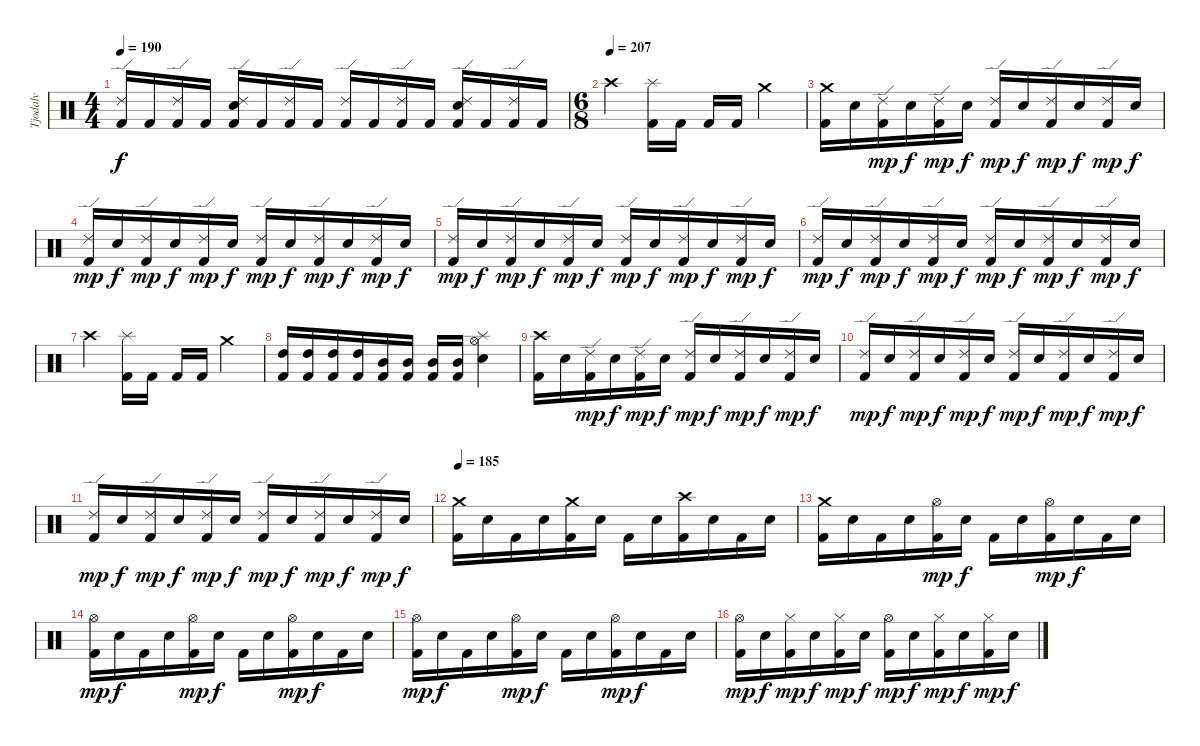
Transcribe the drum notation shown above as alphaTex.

\track ("Tjodalv" "Tjodalv") {instrument percussion}
\staff {score}
\articulation defaults
\ts (4 4)
\tempo 190
\clef neutral
\ks c
("Ride (edge) 2" "Kick (hit) 2").16{dy f} "Kick (hit) 2".16 ("Ride (edge) 2" "Kick (hit) 2").16 "Kick (hit) 2".16 ("Ride (edge) 2" "Electric Snare (hit)" "Kick (hit) 2").16 "Kick (hit) 2".16 ("Ride (edge) 2" "Kick (hit) 2").16 "Kick (hit) 2".16 ("Ride (edge) 2" "Kick (hit) 2").16 "Kick (hit) 2".16 ("Ride (edge) 2" "Kick (hit) 2").16 "Kick (hit) 2".16 ("Ride (edge) 2" "Electric Snare (hit)" "Kick (hit) 2").16 "Kick (hit) 2".16 ("Ride (edge) 2" "Kick (hit) 2").16 "Kick (hit) 2".16 |
\ts (6 8)
\tempo (207)
"Crash high (hit)".4 ("Splash (hit)" "Kick (hit) 2").16 "Kick (hit) 2".16 "Kick (hit) 2".16 "Kick (hit) 2".16 "Crash medium (hit)".4 |
("Crash medium (hit)" "Kick (hit) 2").16 "Electric Snare (hit)".16 ("Ride (edge) 2" "Kick (hit) 2").16{dy mp} "Electric Snare (hit)".16{dy f} ("Ride (edge) 2" "Kick (hit) 2").16{dy mp} "Electric Snare (hit)".16{dy f} ("Ride (edge) 2" "Kick (hit) 2").16{dy mp} "Electric Snare (hit)".16{dy f} ("Ride (edge) 2" "Kick (hit) 2").16{dy mp} "Electric Snare (hit)".16{dy f} ("Ride (edge) 2" "Kick (hit) 2").16{dy mp} "Electric Snare (hit)".16{dy f} |
("Ride (edge) 2" "Kick (hit) 2").16{dy mp} "Electric Snare (hit)".16{dy f} ("Ride (edge) 2" "Kick (hit) 2").16{dy mp} "Electric Snare (hit)".16{dy f} ("Ride (edge) 2" "Kick (hit) 2").16{dy mp} "Electric Snare (hit)".16{dy f} ("Ride (edge) 2" "Kick (hit) 2").16{dy mp} "Electric Snare (hit)".16{dy f} ("Ride (edge) 2" "Kick (hit) 2").16{dy mp} "Electric Snare (hit)".16{dy f} ("Ride (edge) 2" "Kick (hit) 2").16{dy mp} "Electric Snare (hit)".16{dy f} |
("Ride (edge) 2" "Kick (hit) 2").16{dy mp} "Electric Snare (hit)".16{dy f} ("Ride (edge) 2" "Kick (hit) 2").16{dy mp} "Electric Snare (hit)".16{dy f} ("Ride (edge) 2" "Kick (hit) 2").16{dy mp} "Electric Snare (hit)".16{dy f} ("Ride (edge) 2" "Kick (hit) 2").16{dy mp} "Electric Snare (hit)".16{dy f} ("Ride (edge) 2" "Kick (hit) 2").16{dy mp} "Electric Snare (hit)".16{dy f} ("Ride (edge) 2" "Kick (hit) 2").16{dy mp} "Electric Snare (hit)".16{dy f} |
("Ride (edge) 2" "Kick (hit) 2").16{dy mp} "Electric Snare (hit)".16{dy f} ("Ride (edge) 2" "Kick (hit) 2").16{dy mp} "Electric Snare (hit)".16{dy f} ("Ride (edge) 2" "Kick (hit) 2").16{dy mp} "Electric Snare (hit)".16{dy f} ("Ride (edge) 2" "Kick (hit) 2").16{dy mp} "Electric Snare (hit)".16{dy f} ("Ride (edge) 2" "Kick (hit) 2").16{dy mp} "Electric Snare (hit)".16{dy f} ("Ride (edge) 2" "Kick (hit) 2").16{dy mp} "Electric Snare (hit)".16{dy f} |
"Crash high (hit)".4 ("Splash (hit)" "Kick (hit) 2").16 "Kick (hit) 2".16 "Kick (hit) 2".16 "Kick (hit) 2".16 "Crash medium (hit)".4 |
("High Tom (hit)" "Kick (hit) 2").16 ("High Tom (hit)" "Kick (hit) 2").16 ("High Tom (hit)" "Kick (hit) 2").16 ("High Tom (hit)" "Kick (hit) 2").16 ("Mid Tom (hit)" "Kick (hit) 2").16 ("Mid Tom (hit)" "Kick (hit) 2").16 ("Mid Tom (hit)" "Kick (hit) 2").16 ("Mid Tom (hit)" "Kick (hit) 2").16 ("Splash (hit)" "Hi-Hat (open)" "Electric Snare (hit)").4 |
("Crash high (hit)" "Kick (hit) 2").16 "Electric Snare (hit)".16 ("Ride (edge) 2" "Kick (hit) 2").16{dy mp} "Electric Snare (hit)".16{dy f} ("Ride (edge) 2" "Kick (hit) 2").16{dy mp} "Electric Snare (hit)".16{dy f} ("Ride (edge) 2" "Kick (hit) 2").16{dy mp} "Electric Snare (hit)".16{dy f} ("Ride (edge) 2" "Kick (hit) 2").16{dy mp} "Electric Snare (hit)".16{dy f} ("Ride (edge) 2" "Kick (hit) 2").16{dy mp} "Electric Snare (hit)".16{dy f} |
("Ride (edge) 2" "Kick (hit) 2").16{dy mp} "Electric Snare (hit)".16{dy f} ("Ride (edge) 2" "Kick (hit) 2").16{dy mp} "Electric Snare (hit)".16{dy f} ("Ride (edge) 2" "Kick (hit) 2").16{dy mp} "Electric Snare (hit)".16{dy f} ("Ride (edge) 2" "Kick (hit) 2").16{dy mp} "Electric Snare (hit)".16{dy f} ("Ride (edge) 2" "Kick (hit) 2").16{dy mp} "Electric Snare (hit)".16{dy f} ("Ride (edge) 2" "Kick (hit) 2").16{dy mp} "Electric Snare (hit)".16{dy f} |
("Ride (edge) 2" "Kick (hit) 2").16{dy mp} "Electric Snare (hit)".16{dy f} ("Ride (edge) 2" "Kick (hit) 2").16{dy mp} "Electric Snare (hit)".16{dy f} ("Ride (edge) 2" "Kick (hit) 2").16{dy mp} "Electric Snare (hit)".16{dy f} ("Ride (edge) 2" "Kick (hit) 2").16{dy mp} "Electric Snare (hit)".16{dy f} ("Ride (edge) 2" "Kick (hit) 2").16{dy mp} "Electric Snare (hit)".16{dy f} ("Ride (edge) 2" "Kick (hit) 2").16{dy mp} "Electric Snare (hit)".16{dy f} |
\tempo 185
("Crash medium (hit)" "Kick (hit) 2").16 "Electric Snare (hit)".16 "Kick (hit) 2".16 "Electric Snare (hit)".16 ("Crash medium (hit)" "Kick (hit) 2").16 "Electric Snare (hit)".16 "Kick (hit) 2".16 "Electric Snare (hit)".16 ("Crash high (hit)" "Kick (hit) 2").16 "Electric Snare (hit)".16 "Kick (hit) 2".16 "Electric Snare (hit)".16 |
("Crash medium (hit)" "Kick (hit) 2").16 "Electric Snare (hit)".16 "Kick (hit) 2".16 "Electric Snare (hit)".16 ("Hi-Hat (open)" "Kick (hit) 2").16{dy mp} "Electric Snare (hit)".16{dy f} "Kick (hit) 2".16 "Electric Snare (hit)".16 ("Hi-Hat (open)" "Kick (hit) 2").16{dy mp} "Electric Snare (hit)".16{dy f} "Kick (hit) 2".16 "Electric Snare (hit)".16 |
("Hi-Hat (open)" "Kick (hit) 2").16{dy mp} "Electric Snare (hit)".16{dy f} "Kick (hit) 2".16 "Electric Snare (hit)".16 ("Hi-Hat (open)" "Kick (hit) 2").16{dy mp} "Electric Snare (hit)".16{dy f} "Kick (hit) 2".16 "Electric Snare (hit)".16 ("Hi-Hat (open)" "Kick (hit) 2").16{dy mp} "Electric Snare (hit)".16{dy f} "Kick (hit) 2".16 "Electric Snare (hit)".16 |
("Hi-Hat (open)" "Kick (hit) 2").16{dy mp} "Electric Snare (hit)".16{dy f} "Kick (hit) 2".16 "Electric Snare (hit)".16 ("Hi-Hat (open)" "Kick (hit) 2").16{dy mp} "Electric Snare (hit)".16{dy f} "Kick (hit) 2".16 "Electric Snare (hit)".16 ("Hi-Hat (open)" "Kick (hit) 2").16{dy mp} "Electric Snare (hit)".16{dy f} "Kick (hit) 2".16 "Electric Snare (hit)".16 |
("Hi-Hat (open)" "Kick (hit) 2").16{dy mp} "Electric Snare (hit)".16{dy f} ("Hi-Hat (closed)" "Kick (hit) 2").16{dy mp} "Electric Snare (hit)".16{dy f} ("Hi-Hat (closed)" "Kick (hit) 2").16{dy mp} "Electric Snare (hit)".16{dy f} ("Hi-Hat (open)" "Kick (hit) 2").16{dy mp} "Electric Snare (hit)".16{dy f} ("Hi-Hat (closed)" "Kick (hit) 2").16{dy mp} "Electric Snare (hit)".16{dy f} ("Hi-Hat (closed)" "Kick (hit) 2").16{dy mp} "Electric Snare (hit)".16{dy f}
